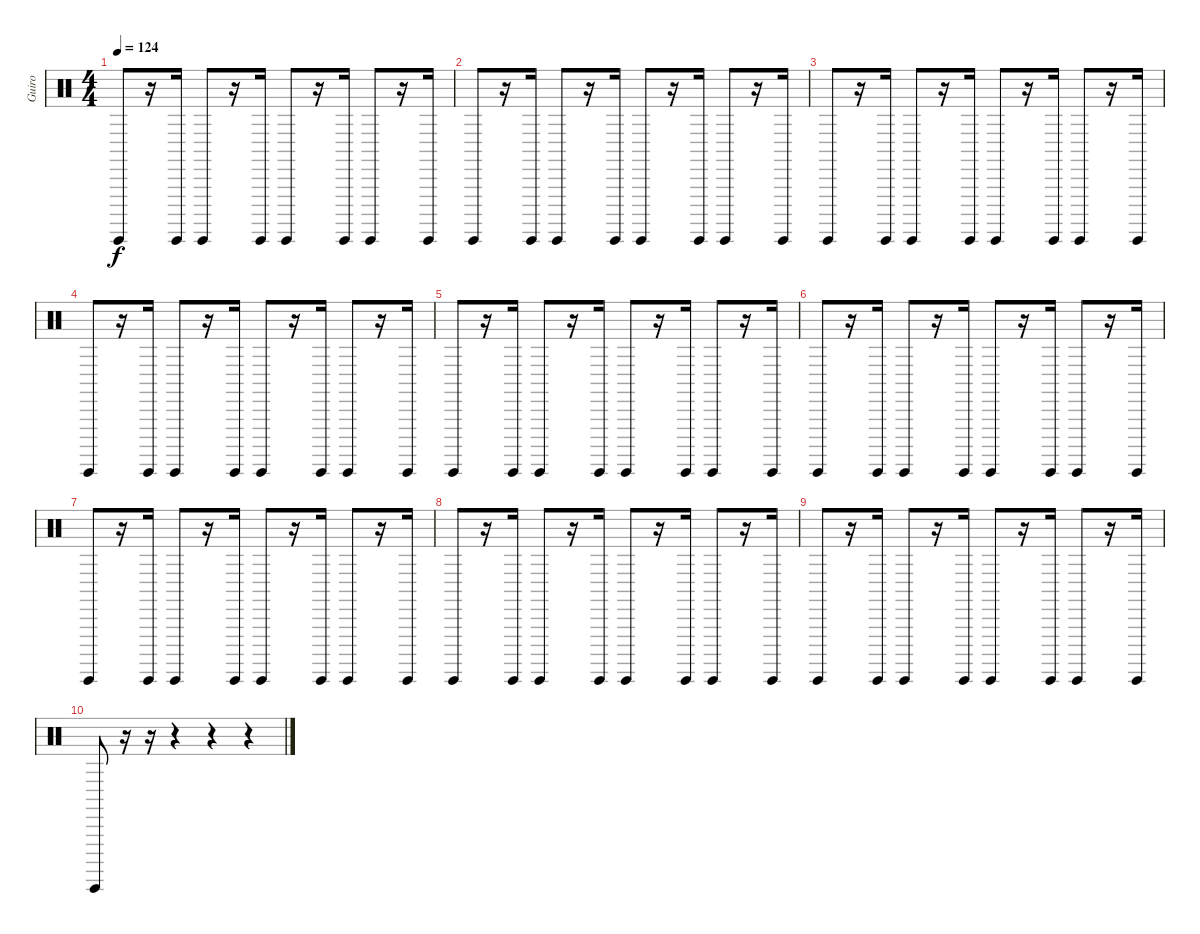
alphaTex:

\track ("Guiro" "Guiro") {instrument percussion}
\staff {score}
\articulation defaults
\ts (4 4)
\tempo 124
\clef neutral
\ks c "Guiro (hit)".8{dy f}
r.16 "Guiro (hit)".16 "Guiro (hit)".8 r.16 "Guiro (hit)".16 "Guiro (hit)".8 r.16 "Guiro (hit)".16 "Guiro (hit)".8 r.16 "Guiro (hit)".16 |
"Guiro (hit)".8 r.16 "Guiro (hit)".16 "Guiro (hit)".8 r.16 "Guiro (hit)".16 "Guiro (hit)".8 r.16 "Guiro (hit)".16 "Guiro (hit)".8 r.16 "Guiro (hit)".16 |
"Guiro (hit)".8 r.16 "Guiro (hit)".16 "Guiro (hit)".8 r.16 "Guiro (hit)".16 "Guiro (hit)".8 r.16 "Guiro (hit)".16 "Guiro (hit)".8 r.16 "Guiro (hit)".16 |
"Guiro (hit)".8 r.16 "Guiro (hit)".16 "Guiro (hit)".8 r.16 "Guiro (hit)".16 "Guiro (hit)".8 r.16 "Guiro (hit)".16 "Guiro (hit)".8 r.16 "Guiro (hit)".16 |
"Guiro (hit)".8 r.16 "Guiro (hit)".16 "Guiro (hit)".8 r.16 "Guiro (hit)".16 "Guiro (hit)".8 r.16 "Guiro (hit)".16 "Guiro (hit)".8 r.16 "Guiro (hit)".16 |
"Guiro (hit)".8 r.16 "Guiro (hit)".16 "Guiro (hit)".8 r.16 "Guiro (hit)".16 "Guiro (hit)".8 r.16 "Guiro (hit)".16 "Guiro (hit)".8 r.16 "Guiro (hit)".16 |
"Guiro (hit)".8 r.16 "Guiro (hit)".16 "Guiro (hit)".8 r.16 "Guiro (hit)".16 "Guiro (hit)".8 r.16 "Guiro (hit)".16 "Guiro (hit)".8 r.16 "Guiro (hit)".16 |
"Guiro (hit)".8 r.16 "Guiro (hit)".16 "Guiro (hit)".8 r.16 "Guiro (hit)".16 "Guiro (hit)".8 r.16 "Guiro (hit)".16 "Guiro (hit)".8 r.16 "Guiro (hit)".16 |
"Guiro (hit)".8 r.16 "Guiro (hit)".16 "Guiro (hit)".8 r.16 "Guiro (hit)".16 "Guiro (hit)".8 r.16 "Guiro (hit)".16 "Guiro (hit)".8 r.16 "Guiro (hit)".16 |
"Guiro (hit)".8 r.16 r.16 r.4 r.4 r.4
